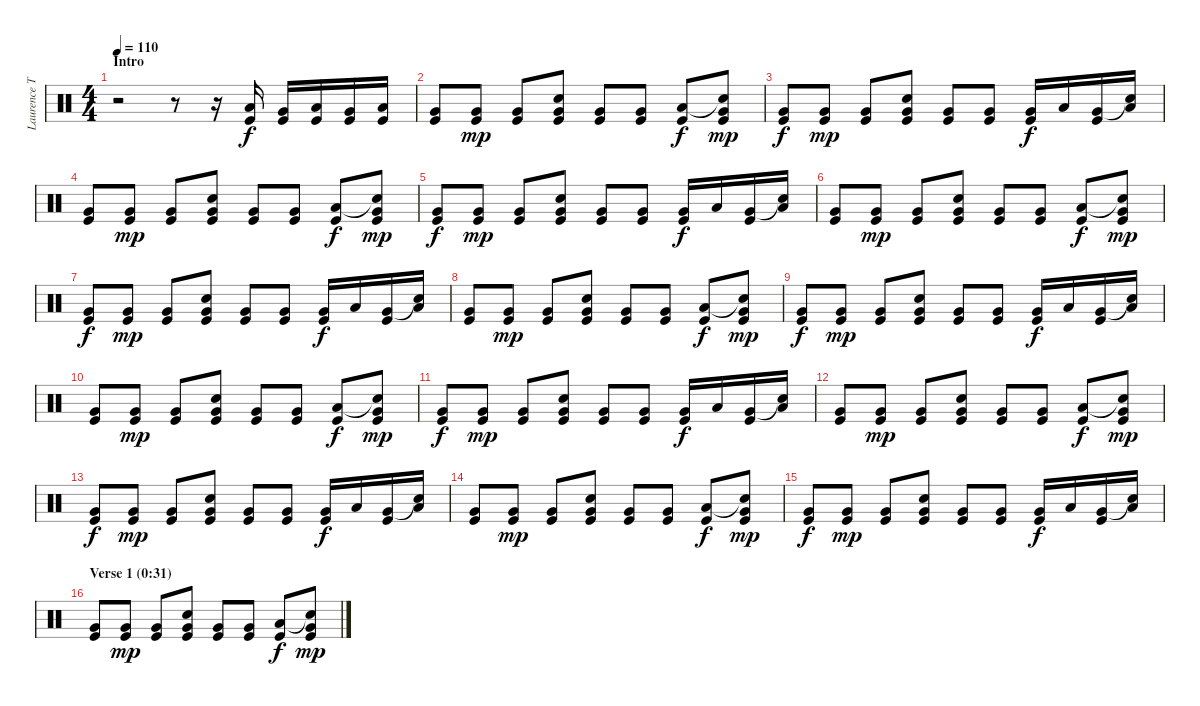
\track ("Laurence Tolhurst (drums)" "Laurence T") {instrument percussion}
\staff {score}
\articulation defaults
\ts (4 4)
\section ("" "Intro")
\tempo 110
\clef neutral
\ks c
r.2{dy f} r.8 r.16 ("Low Tom (hit)" "Kick (hit)").16 ("Very Low Tom (hit)" "Kick (hit)").16 ("Low Tom (hit)" "Kick (hit)").16 ("Very Low Tom (hit)" "Kick (hit)").16 ("Low Tom (hit)" "Kick (hit)").16 |
("Very Low Tom (hit)" "Kick (hit)").8 ("Very Low Tom (hit)" "Kick (hit)").8{dy mp} ("Very Low Tom (hit)" "Kick (hit)").8 ("Snare (hit) 2" "Very Low Tom (hit)" "Kick (hit)").8 ("Very Low Tom (hit)" "Kick (hit)").8 ("Very Low Tom (hit)" "Kick (hit)").8 ("Low Tom (hit)" "Kick (hit)").8{dy f} ("Snare (hit)"{t} "Very Low Tom (hit)" "Kick (hit)").8{dy mp} |
("Very Low Tom (hit)" "Kick (hit)").8{dy f} ("Very Low Tom (hit)" "Kick (hit)").8{dy mp} ("Very Low Tom (hit)" "Kick (hit)").8 ("Snare (hit) 2" "Very Low Tom (hit)" "Kick (hit)").8 ("Very Low Tom (hit)" "Kick (hit)").8 ("Very Low Tom (hit)" "Kick (hit)").8 ("Very Low Tom (hit)" "Kick (hit)").16{dy f} "Low Tom (hit)".16 ("Very Low Tom (hit)" "Kick (hit)").16 ("Snare (hit)"{t} "Low Tom (hit)").16 |
("Very Low Tom (hit)" "Kick (hit)").8 ("Very Low Tom (hit)" "Kick (hit)").8{dy mp} ("Very Low Tom (hit)" "Kick (hit)").8 ("Snare (hit) 2" "Very Low Tom (hit)" "Kick (hit)").8 ("Very Low Tom (hit)" "Kick (hit)").8 ("Very Low Tom (hit)" "Kick (hit)").8 ("Low Tom (hit)" "Kick (hit)").8{dy f} ("Snare (hit)"{t} "Very Low Tom (hit)" "Kick (hit)").8{dy mp} |
("Very Low Tom (hit)" "Kick (hit)").8{dy f} ("Very Low Tom (hit)" "Kick (hit)").8{dy mp} ("Very Low Tom (hit)" "Kick (hit)").8 ("Snare (hit) 2" "Very Low Tom (hit)" "Kick (hit)").8 ("Very Low Tom (hit)" "Kick (hit)").8 ("Very Low Tom (hit)" "Kick (hit)").8 ("Very Low Tom (hit)" "Kick (hit)").16{dy f} "Low Tom (hit)".16 ("Very Low Tom (hit)" "Kick (hit)").16 ("Snare (hit)"{t} "Low Tom (hit)").16 |
("Very Low Tom (hit)" "Kick (hit)").8 ("Very Low Tom (hit)" "Kick (hit)").8{dy mp} ("Very Low Tom (hit)" "Kick (hit)").8 ("Snare (hit) 2" "Very Low Tom (hit)" "Kick (hit)").8 ("Very Low Tom (hit)" "Kick (hit)").8 ("Very Low Tom (hit)" "Kick (hit)").8 ("Low Tom (hit)" "Kick (hit)").8{dy f} ("Snare (hit)"{t} "Very Low Tom (hit)" "Kick (hit)").8{dy mp} |
("Very Low Tom (hit)" "Kick (hit)").8{dy f} ("Very Low Tom (hit)" "Kick (hit)").8{dy mp} ("Very Low Tom (hit)" "Kick (hit)").8 ("Snare (hit) 2" "Very Low Tom (hit)" "Kick (hit)").8 ("Very Low Tom (hit)" "Kick (hit)").8 ("Very Low Tom (hit)" "Kick (hit)").8 ("Very Low Tom (hit)" "Kick (hit)").16{dy f} "Low Tom (hit)".16 ("Very Low Tom (hit)" "Kick (hit)").16 ("Snare (hit)"{t} "Low Tom (hit)").16 |
("Very Low Tom (hit)" "Kick (hit)").8 ("Very Low Tom (hit)" "Kick (hit)").8{dy mp} ("Very Low Tom (hit)" "Kick (hit)").8 ("Snare (hit) 2" "Very Low Tom (hit)" "Kick (hit)").8 ("Very Low Tom (hit)" "Kick (hit)").8 ("Very Low Tom (hit)" "Kick (hit)").8 ("Low Tom (hit)" "Kick (hit)").8{dy f} ("Snare (hit)"{t} "Very Low Tom (hit)" "Kick (hit)").8{dy mp} |
("Very Low Tom (hit)" "Kick (hit)").8{dy f} ("Very Low Tom (hit)" "Kick (hit)").8{dy mp} ("Very Low Tom (hit)" "Kick (hit)").8 ("Snare (hit) 2" "Very Low Tom (hit)" "Kick (hit)").8 ("Very Low Tom (hit)" "Kick (hit)").8 ("Very Low Tom (hit)" "Kick (hit)").8 ("Very Low Tom (hit)" "Kick (hit)").16{dy f} "Low Tom (hit)".16 ("Very Low Tom (hit)" "Kick (hit)").16 ("Snare (hit)"{t} "Low Tom (hit)").16 |
("Very Low Tom (hit)" "Kick (hit)").8 ("Very Low Tom (hit)" "Kick (hit)").8{dy mp} ("Very Low Tom (hit)" "Kick (hit)").8 ("Snare (hit) 2" "Very Low Tom (hit)" "Kick (hit)").8 ("Very Low Tom (hit)" "Kick (hit)").8 ("Very Low Tom (hit)" "Kick (hit)").8 ("Low Tom (hit)" "Kick (hit)").8{dy f} ("Snare (hit)"{t} "Very Low Tom (hit)" "Kick (hit)").8{dy mp} |
("Very Low Tom (hit)" "Kick (hit)").8{dy f} ("Very Low Tom (hit)" "Kick (hit)").8{dy mp} ("Very Low Tom (hit)" "Kick (hit)").8 ("Snare (hit) 2" "Very Low Tom (hit)" "Kick (hit)").8 ("Very Low Tom (hit)" "Kick (hit)").8 ("Very Low Tom (hit)" "Kick (hit)").8 ("Very Low Tom (hit)" "Kick (hit)").16{dy f} "Low Tom (hit)".16 ("Very Low Tom (hit)" "Kick (hit)").16 ("Snare (hit)"{t} "Low Tom (hit)").16 |
("Very Low Tom (hit)" "Kick (hit)").8 ("Very Low Tom (hit)" "Kick (hit)").8{dy mp} ("Very Low Tom (hit)" "Kick (hit)").8 ("Snare (hit) 2" "Very Low Tom (hit)" "Kick (hit)").8 ("Very Low Tom (hit)" "Kick (hit)").8 ("Very Low Tom (hit)" "Kick (hit)").8 ("Low Tom (hit)" "Kick (hit)").8{dy f} ("Snare (hit)"{t} "Very Low Tom (hit)" "Kick (hit)").8{dy mp} |
("Very Low Tom (hit)" "Kick (hit)").8{dy f} ("Very Low Tom (hit)" "Kick (hit)").8{dy mp} ("Very Low Tom (hit)" "Kick (hit)").8 ("Snare (hit) 2" "Very Low Tom (hit)" "Kick (hit)").8 ("Very Low Tom (hit)" "Kick (hit)").8 ("Very Low Tom (hit)" "Kick (hit)").8 ("Very Low Tom (hit)" "Kick (hit)").16{dy f} "Low Tom (hit)".16 ("Very Low Tom (hit)" "Kick (hit)").16 ("Snare (hit)"{t} "Low Tom (hit)").16 |
("Very Low Tom (hit)" "Kick (hit)").8 ("Very Low Tom (hit)" "Kick (hit)").8{dy mp} ("Very Low Tom (hit)" "Kick (hit)").8 ("Snare (hit) 2" "Very Low Tom (hit)" "Kick (hit)").8 ("Very Low Tom (hit)" "Kick (hit)").8 ("Very Low Tom (hit)" "Kick (hit)").8 ("Low Tom (hit)" "Kick (hit)").8{dy f} ("Snare (hit)"{t} "Very Low Tom (hit)" "Kick (hit)").8{dy mp} |
("Very Low Tom (hit)" "Kick (hit)").8{dy f} ("Very Low Tom (hit)" "Kick (hit)").8{dy mp} ("Very Low Tom (hit)" "Kick (hit)").8 ("Snare (hit) 2" "Very Low Tom (hit)" "Kick (hit)").8 ("Very Low Tom (hit)" "Kick (hit)").8 ("Very Low Tom (hit)" "Kick (hit)").8 ("Very Low Tom (hit)" "Kick (hit)").16{dy f} "Low Tom (hit)".16 ("Very Low Tom (hit)" "Kick (hit)").16 ("Snare (hit)"{t} "Low Tom (hit)").16 |
\section ("" "Verse 1 (0:31)")
("Very Low Tom (hit)" "Kick (hit)").8 ("Very Low Tom (hit)" "Kick (hit)").8{dy mp} ("Very Low Tom (hit)" "Kick (hit)").8 ("Snare (hit) 2" "Very Low Tom (hit)" "Kick (hit)").8 ("Very Low Tom (hit)" "Kick (hit)").8 ("Very Low Tom (hit)" "Kick (hit)").8 ("Low Tom (hit)" "Kick (hit)").8{dy f} ("Snare (hit)"{t} "Very Low Tom (hit)" "Kick (hit)").8{dy mp}
